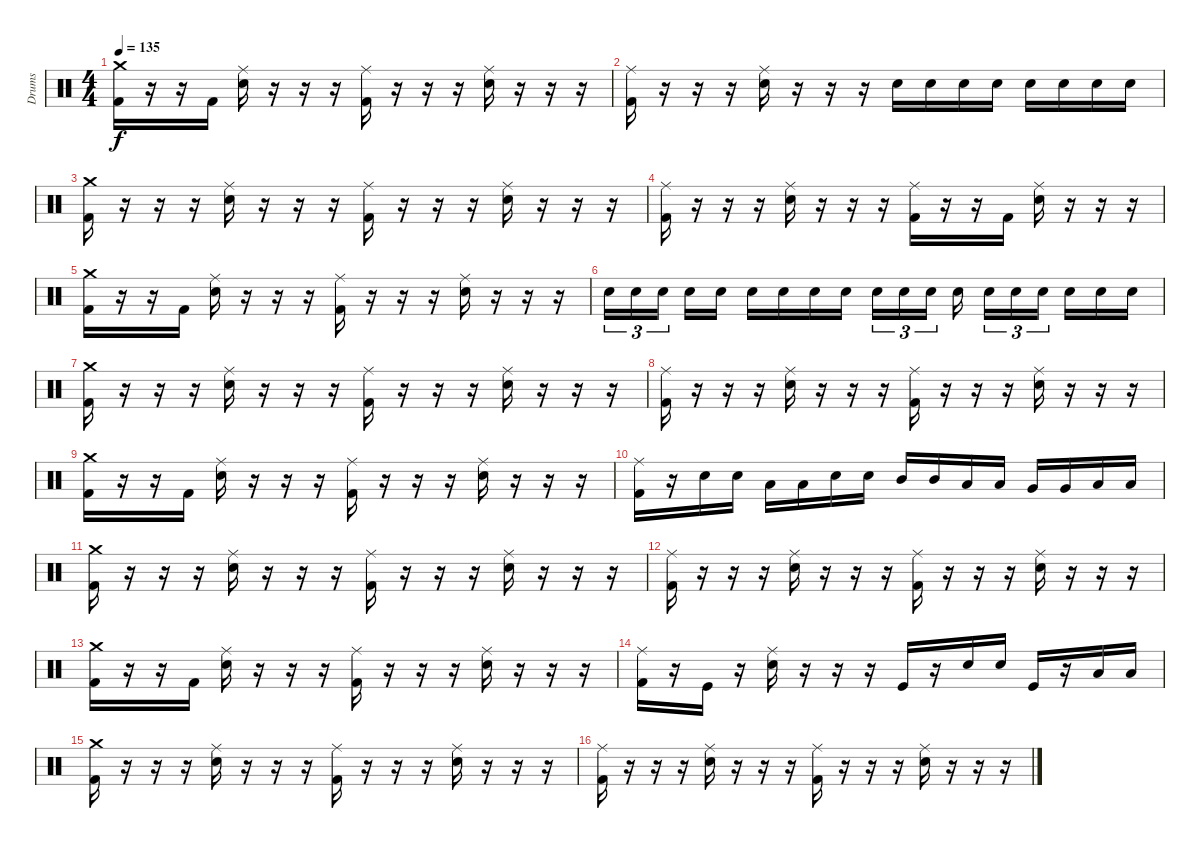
\track ("Drums" "Drums") {instrument percussion}
\staff {score}
\articulation defaults
\ts (4 4)
\tempo 135
\clef neutral
\ks c
("Crash medium (hit)" "Kick (hit) 2").16{dy f} r.16 r.16 "Kick (hit) 2".16 ("Ride (middle)" "Electric Snare (hit)").16 r.16 r.16 r.16 ("Ride (middle)" "Kick (hit) 2").16 r.16 r.16 r.16 ("Ride (middle)" "Electric Snare (hit)").16 r.16 r.16 r.16 |
("Ride (middle)" "Kick (hit) 2").16 r.16 r.16 r.16 ("Ride (middle)" "Electric Snare (hit)").16 r.16 r.16 r.16 "Electric Snare (hit)".16 "Electric Snare (hit)".16 "Electric Snare (hit)".16 "Electric Snare (hit)".16 "Electric Snare (hit)".16 "Electric Snare (hit)".16 "Electric Snare (hit)".16 "Electric Snare (hit)".16 |
("Crash medium (hit)" "Kick (hit) 2").16 r.16 r.16 r.16 ("Ride (middle)" "Electric Snare (hit)").16 r.16 r.16 r.16 ("Ride (middle)" "Kick (hit) 2").16 r.16 r.16 r.16 ("Ride (middle)" "Electric Snare (hit)").16 r.16 r.16 r.16 |
("Ride (middle)" "Kick (hit) 2").16 r.16 r.16 r.16 ("Ride (middle)" "Electric Snare (hit)").16 r.16 r.16 r.16 ("Ride (middle)" "Kick (hit) 2").16 r.16 r.16 "Kick (hit) 2".16 ("Ride (middle)" "Electric Snare (hit)").16 r.16 r.16 r.16 |
("Crash medium (hit)" "Kick (hit) 2").16 r.16 r.16 "Kick (hit) 2".16 ("Ride (middle)" "Electric Snare (hit)").16 r.16 r.16 r.16 ("Ride (middle)" "Kick (hit) 2").16 r.16 r.16 r.16 ("Ride (middle)" "Electric Snare (hit)").16 r.16 r.16 r.16 |
"Electric Snare (hit)".16{tu (3 2)} "Electric Snare (hit)".16{tu (3 2)} "Electric Snare (hit)".16{tu (3 2) beam splitsecondary} "Electric Snare (hit)".16 "Electric Snare (hit)".16 "Electric Snare (hit)".16 "Electric Snare (hit)".16 "Electric Snare (hit)".16 "Electric Snare (hit)".16 "Electric Snare (hit)".16{tu (3 2)} "Electric Snare (hit)".16{tu (3 2)} "Electric Snare (hit)".16{tu (3 2) beam splitsecondary} "Electric Snare (hit)".16{beam splitsecondary} "Electric Snare (hit)".16{tu (3 2)} "Electric Snare (hit)".16{tu (3 2)} "Electric Snare (hit)".16{tu (3 2) beam splitsecondary} "Electric Snare (hit)".16 "Electric Snare (hit)".16 "Electric Snare (hit)".16 |
("Crash medium (hit)" "Kick (hit) 2").16 r.16 r.16 r.16 ("Ride (middle)" "Electric Snare (hit)").16 r.16 r.16 r.16 ("Ride (middle)" "Kick (hit) 2").16 r.16 r.16 r.16 ("Ride (middle)" "Electric Snare (hit)").16 r.16 r.16 r.16 |
("Ride (middle)" "Kick (hit) 2").16 r.16 r.16 r.16 ("Ride (middle)" "Electric Snare (hit)").16 r.16 r.16 r.16 ("Ride (middle)" "Kick (hit) 2").16 r.16 r.16 r.16 ("Ride (middle)" "Electric Snare (hit)").16 r.16 r.16 r.16 |
("Crash medium (hit)" "Kick (hit) 2").16 r.16 r.16 "Kick (hit) 2".16 ("Ride (middle)" "Electric Snare (hit)").16 r.16 r.16 r.16 ("Ride (middle)" "Kick (hit) 2").16 r.16 r.16 r.16 ("Ride (middle)" "Electric Snare (hit)").16 r.16 r.16 r.16 |
("Ride (middle)" "Kick (hit) 2").16 r.16 "Electric Snare (hit)".16 "Electric Snare (hit)".16 "Low Tom (hit)".16 "Low Tom (hit)".16 "Electric Snare (hit)".16 "Electric Snare (hit)".16 "Mid Tom (hit)".16 "Mid Tom (hit)".16 "Low Tom (hit)".16 "Low Tom (hit)".16 "Very Low Tom (hit)".16 "Very Low Tom (hit)".16 "Low Floor Tom (hit)".16 "Low Floor Tom (hit)".16 |
("Crash medium (hit)" "Kick (hit) 2").16 r.16 r.16 r.16 ("Ride (middle)" "Electric Snare (hit)").16 r.16 r.16 r.16 ("Ride (middle)" "Kick (hit) 2").16 r.16 r.16 r.16 ("Ride (middle)" "Electric Snare (hit)").16 r.16 r.16 r.16 |
("Ride (middle)" "Kick (hit) 2").16 r.16 r.16 r.16 ("Ride (middle)" "Electric Snare (hit)").16 r.16 r.16 r.16 ("Ride (middle)" "Kick (hit) 2").16 r.16 r.16 r.16 ("Ride (middle)" "Electric Snare (hit)").16 r.16 r.16 r.16 |
("Crash medium (hit)" "Kick (hit) 2").16 r.16 r.16 "Kick (hit) 2".16 ("Ride (middle)" "Electric Snare (hit)").16 r.16 r.16 r.16 ("Ride (middle)" "Kick (hit) 2").16 r.16 r.16 r.16 ("Ride (middle)" "Electric Snare (hit)").16 r.16 r.16 r.16 |
("Ride (middle)" "Kick (hit) 2").16 r.16 "Kick (hit)".16 r.16 ("Ride (middle)" "Electric Snare (hit)").16 r.16 r.16 r.16 "Kick (hit)".16 r.16 "Electric Snare (hit)".16 "Electric Snare (hit)".16 "Kick (hit)".16 r.16 "Low Tom (hit)".16 "Low Tom (hit)".16 |
("Crash medium (hit)" "Kick (hit) 2").16 r.16 r.16 r.16 ("Ride (middle)" "Electric Snare (hit)").16 r.16 r.16 r.16 ("Ride (middle)" "Kick (hit) 2").16 r.16 r.16 r.16 ("Ride (middle)" "Electric Snare (hit)").16 r.16 r.16 r.16 |
("Ride (middle)" "Kick (hit) 2").16 r.16 r.16 r.16 ("Ride (middle)" "Electric Snare (hit)").16 r.16 r.16 r.16 ("Ride (middle)" "Kick (hit) 2").16 r.16 r.16 r.16 ("Ride (middle)" "Electric Snare (hit)").16 r.16 r.16 r.16
